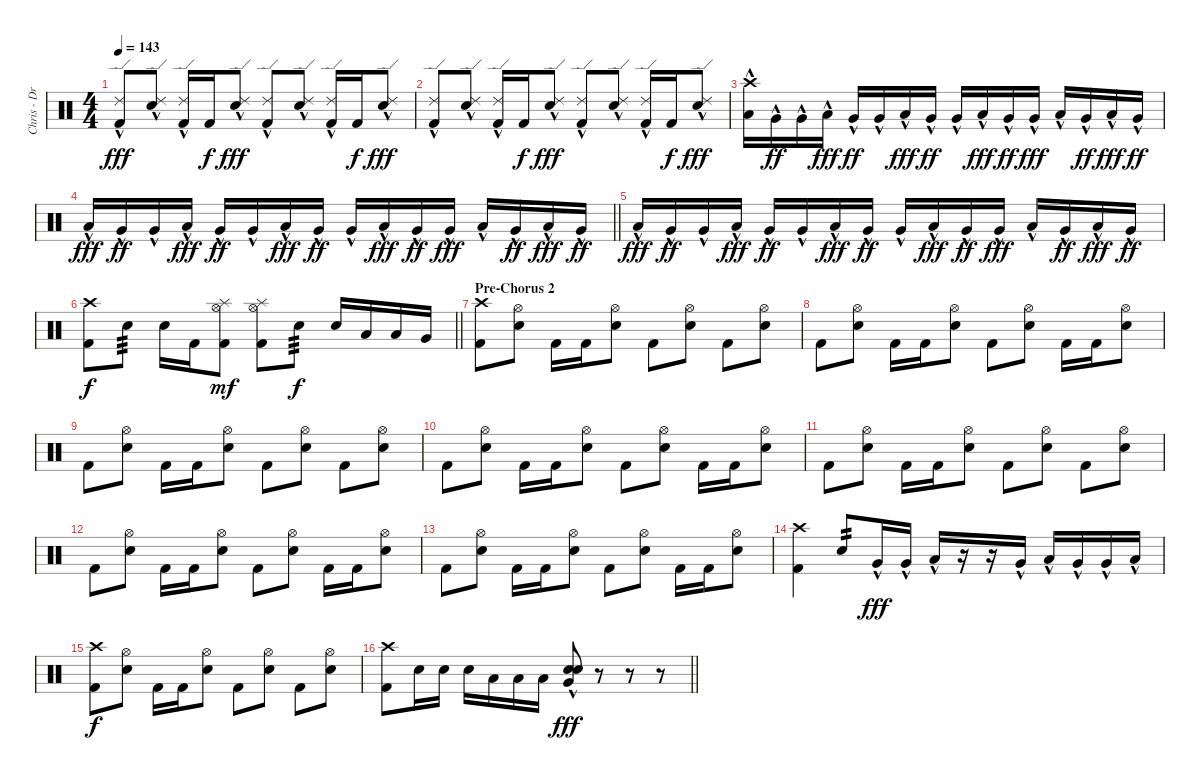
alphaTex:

\track ("Chris - Drums" "Chris - Dr") {instrument percussion}
\staff {score}
\articulation defaults
\ts (4 4)
\tempo 143
\clef neutral
\ks c
("Ride (edge) 2"{hac} "Kick (hit) 2").8{dy fff} ("Ride (edge) 2"{hac} "Electric Snare (hit)").8 ("Ride (edge) 2"{hac} "Kick (hit) 2").16 "Kick (hit) 2".16{dy f} ("Ride (edge) 2"{hac} "Electric Snare (hit)").8{dy fff} ("Ride (edge) 2"{hac} "Kick (hit) 2").8 ("Ride (edge) 2"{hac} "Electric Snare (hit)").8 ("Ride (edge) 2"{hac} "Kick (hit) 2").16 "Kick (hit) 2".16{dy f} ("Ride (edge) 2"{hac} "Electric Snare (hit)").8{dy fff} |
("Ride (edge) 2"{hac} "Kick (hit) 2").8 ("Ride (edge) 2"{hac} "Electric Snare (hit)").8 ("Ride (edge) 2"{hac} "Kick (hit) 2").16 "Kick (hit) 2".16{dy f} ("Ride (edge) 2"{hac} "Electric Snare (hit)").8{dy fff} ("Ride (edge) 2"{hac} "Kick (hit) 2").8 ("Ride (edge) 2"{hac} "Electric Snare (hit)").8 ("Ride (edge) 2"{hac} "Kick (hit) 2").16 "Kick (hit) 2".16{dy f} ("Ride (edge) 2"{hac} "Electric Snare (hit)").8{dy fff} |
("Crash high (hit)"{hac} "Low Tom (hit)"{hac}).16 "Very Low Tom (hit)"{hac}.16{dy ff} "Very Low Tom (hit)"{hac}.16 "Low Tom (hit)"{hac}.16{dy fff} "Very Low Tom (hit)"{hac}.16{dy ff} "Very Low Tom (hit)"{hac}.16 "Low Tom (hit)"{hac}.16{dy fff} "Very Low Tom (hit)"{hac}.16{dy ff} "Very Low Tom (hit)"{hac}.16 "Low Tom (hit)"{hac}.16{dy fff} "Very Low Tom (hit)"{hac}.16{dy ff} "Very Low Tom (hit)"{hac}.16{dy fff} "Low Tom (hit)"{hac}.16 "Very Low Tom (hit)"{hac}.16{dy ff} "Low Tom (hit)"{hac}.16{dy fff} "Very Low Tom (hit)"{hac}.16{dy ff} |
\barLineRight lightlight "Low Tom (hit)"{hac}.16{dy fff} "Very Low Tom (hit)"{hac}.16{dy ff} "Very Low Tom (hit)"{hac}.16 "Low Tom (hit)"{hac}.16{dy fff} "Very Low Tom (hit)"{hac}.16{dy ff} "Very Low Tom (hit)"{hac}.16 "Low Tom (hit)"{hac}.16{dy fff} "Very Low Tom (hit)"{hac}.16{dy ff} "Very Low Tom (hit)"{hac}.16 "Low Tom (hit)"{hac}.16{dy fff} "Very Low Tom (hit)"{hac}.16{dy ff} "Very Low Tom (hit)"{hac}.16{dy fff} "Low Tom (hit)"{hac}.16 "Very Low Tom (hit)"{hac}.16{dy ff} "Low Tom (hit)"{hac}.16{dy fff} "Very Low Tom (hit)"{hac}.16{dy ff}
|
"Low Tom (hit)"{hac}.16{dy fff} "Very Low Tom (hit)"{hac}.16{dy ff} "Very Low Tom (hit)"{hac}.16 "Low Tom (hit)"{hac}.16{dy fff} "Very Low Tom (hit)"{hac}.16{dy ff} "Very Low Tom (hit)"{hac}.16 "Low Tom (hit)"{hac}.16{dy fff} "Very Low Tom (hit)"{hac}.16{dy ff} "Very Low Tom (hit)"{hac}.16 "Low Tom (hit)"{hac}.16{dy fff} "Very Low Tom (hit)"{hac}.16{dy ff} "Very Low Tom (hit)"{hac}.16{dy fff} "Low Tom (hit)"{hac}.16 "Very Low Tom (hit)"{hac}.16{dy ff} "Low Tom (hit)"{hac}.16{dy fff} "Very Low Tom (hit)"{hac}.16{dy ff} |
\barLineRight lightlight
("Crash high (hit)" "Kick (hit) 2").8{dy f} "Electric Snare (hit)".8{tp 3} "Electric Snare (hit)".16 "Kick (hit) 2".16 ("Hi-Hat (open)" "Splash (hit)" "Kick (hit) 2").8{dy mf} ("Hi-Hat (open)" "Splash (hit)" "Kick (hit) 2").8 "Electric Snare (hit)".8{tp 3 dy f} "Electric Snare (hit)".16 "Low Tom (hit)".16 "Low Tom (hit)".16 "Very Low Tom (hit)".16 |
\section ("" "Pre-Chorus 2")
("Crash high (hit)" "Kick (hit) 2").8 ("Hi-Hat (open)" "Electric Snare (hit)").8 "Kick (hit) 2".16 "Kick (hit) 2".16 ("Hi-Hat (open)" "Electric Snare (hit)").8 "Kick (hit) 2".8 ("Hi-Hat (open)" "Electric Snare (hit)").8 "Kick (hit) 2".8 ("Hi-Hat (open)" "Electric Snare (hit)").8 |
"Kick (hit) 2".8 ("Hi-Hat (open)" "Electric Snare (hit)").8 "Kick (hit) 2".16 "Kick (hit) 2".16 ("Hi-Hat (open)" "Electric Snare (hit)").8 "Kick (hit) 2".8 ("Hi-Hat (open)" "Electric Snare (hit)").8 "Kick (hit) 2".16 "Kick (hit) 2".16 ("Hi-Hat (open)" "Electric Snare (hit)").8 |
"Kick (hit) 2".8 ("Hi-Hat (open)" "Electric Snare (hit)").8 "Kick (hit) 2".16 "Kick (hit) 2".16 ("Hi-Hat (open)" "Electric Snare (hit)").8 "Kick (hit) 2".8 ("Hi-Hat (open)" "Electric Snare (hit)").8 "Kick (hit) 2".8 ("Hi-Hat (open)" "Electric Snare (hit)").8 |
"Kick (hit) 2".8 ("Hi-Hat (open)" "Electric Snare (hit)").8 "Kick (hit) 2".16 "Kick (hit) 2".16 ("Hi-Hat (open)" "Electric Snare (hit)").8 "Kick (hit) 2".8 ("Hi-Hat (open)" "Electric Snare (hit)").8 "Kick (hit) 2".16 "Kick (hit) 2".16 ("Hi-Hat (open)" "Electric Snare (hit)").8 |
"Kick (hit) 2".8 ("Hi-Hat (open)" "Electric Snare (hit)").8 "Kick (hit) 2".16 "Kick (hit) 2".16 ("Hi-Hat (open)" "Electric Snare (hit)").8 "Kick (hit) 2".8 ("Hi-Hat (open)" "Electric Snare (hit)").8 "Kick (hit) 2".8 ("Hi-Hat (open)" "Electric Snare (hit)").8 |
"Kick (hit) 2".8 ("Hi-Hat (open)" "Electric Snare (hit)").8 "Kick (hit) 2".16 "Kick (hit) 2".16 ("Hi-Hat (open)" "Electric Snare (hit)").8 "Kick (hit) 2".8 ("Hi-Hat (open)" "Electric Snare (hit)").8 "Kick (hit) 2".16 "Kick (hit) 2".16 ("Hi-Hat (open)" "Electric Snare (hit)").8 |
"Kick (hit) 2".8 ("Hi-Hat (open)" "Electric Snare (hit)").8 "Kick (hit) 2".16 "Kick (hit) 2".16 ("Hi-Hat (open)" "Electric Snare (hit)").8 "Kick (hit) 2".8 ("Hi-Hat (open)" "Electric Snare (hit)").8 "Kick (hit) 2".16 "Kick (hit) 2".16 ("Hi-Hat (open)" "Electric Snare (hit)").8 |
("Crash high (hit)" "Kick (hit) 2").4 "Electric Snare (hit)".8{tp 2} "Very Low Tom (hit)"{hac}.16{dy fff} "Very Low Tom (hit)"{hac}.16 "Low Tom (hit)"{hac}.16 r.16 r.16 "Very Low Tom (hit)"{hac}.16 "Low Tom (hit)"{hac}.16 "Very Low Tom (hit)"{hac}.16 "Very Low Tom (hit)"{hac}.16 "Low Floor Tom (hit)"{hac}.16 |
("Crash high (hit)" "Kick (hit) 2").8{dy f} ("Hi-Hat (open)" "Electric Snare (hit)").8 "Kick (hit) 2".16 "Kick (hit) 2".16 ("Hi-Hat (open)" "Electric Snare (hit)").8 "Kick (hit) 2".8 ("Hi-Hat (open)" "Electric Snare (hit)").8 "Kick (hit) 2".8 ("Hi-Hat (open)" "Electric Snare (hit)").8 |
\barLineRight lightlight
("Crash high (hit)" "Kick (hit) 2").8 "Electric Snare (hit)".16 "Electric Snare (hit)".16 "Electric Snare (hit)".16 "Low Tom (hit)".16 "Low Tom (hit)".16 "Low Tom (hit)".16 ("Very Low Tom (hit)"{hac} "Electric Snare (hit)"{hac} "Electric Snare (hit)"{hac}).8{dy fff} r.8 r.8 r.8
